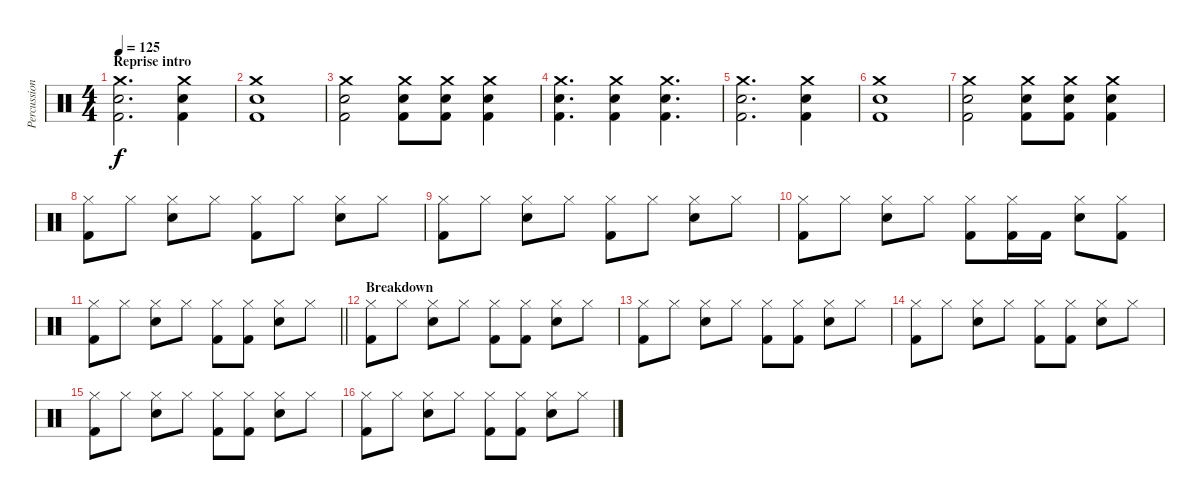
\track ("Percussion" "Percussion") {instrument percussion}
\staff {score}
\articulation defaults
\ts (4 4)
\section ("" "Reprise intro")
\tempo 125
\clef neutral
\ks c
("Crash medium (hit)" "Snare (hit) 2" "Kick (hit) 2").2{d dy f} ("Crash medium (hit)" "Snare (hit) 2" "Kick (hit) 2").4 |
("Crash medium (hit)" "Snare (hit) 2" "Kick (hit) 2").1 |
("Crash medium (hit)" "Snare (hit) 2" "Kick (hit) 2").2 ("Crash medium (hit)" "Snare (hit) 2" "Kick (hit) 2").8 ("Crash medium (hit)" "Snare (hit) 2" "Kick (hit) 2").8 ("Crash medium (hit)" "Snare (hit) 2" "Kick (hit) 2").4 |
("Crash medium (hit)" "Snare (hit) 2" "Kick (hit) 2").4{d} ("Crash medium (hit)" "Snare (hit) 2" "Kick (hit) 2").4 ("Crash medium (hit)" "Snare (hit) 2" "Kick (hit) 2").4{d} |
("Crash medium (hit)" "Snare (hit) 2" "Kick (hit) 2").2{d} ("Crash medium (hit)" "Snare (hit) 2" "Kick (hit) 2").4 |
("Crash medium (hit)" "Snare (hit) 2" "Kick (hit) 2").1 |
("Crash medium (hit)" "Snare (hit) 2" "Kick (hit) 2").2 ("Crash medium (hit)" "Snare (hit) 2" "Kick (hit) 2").8 ("Crash medium (hit)" "Snare (hit) 2" "Kick (hit) 2").8 ("Crash medium (hit)" "Snare (hit) 2" "Kick (hit) 2").4 |
("Hi-Hat (closed)" "Kick (hit) 2").8 "Hi-Hat (closed)".8 ("Hi-Hat (closed)" "Snare (hit) 2").8 "Hi-Hat (closed)".8 ("Hi-Hat (closed)" "Kick (hit) 2").8 "Hi-Hat (closed)".8 ("Hi-Hat (closed)" "Snare (hit) 2").8 "Hi-Hat (closed)".8 |
("Hi-Hat (closed)" "Kick (hit) 2").8 "Hi-Hat (closed)".8 ("Hi-Hat (closed)" "Snare (hit) 2").8 "Hi-Hat (closed)".8 ("Hi-Hat (closed)" "Kick (hit) 2").8 "Hi-Hat (closed)".8 ("Hi-Hat (closed)" "Snare (hit) 2").8 "Hi-Hat (closed)".8 |
("Hi-Hat (closed)" "Kick (hit) 2").8 "Hi-Hat (closed)".8 ("Hi-Hat (closed)" "Snare (hit) 2").8 "Hi-Hat (closed)".8 ("Hi-Hat (closed)" "Kick (hit) 2").8 ("Hi-Hat (closed)" "Kick (hit) 2").16 "Kick (hit) 2".16 ("Hi-Hat (closed)" "Snare (hit) 2").8 ("Hi-Hat (closed)" "Kick (hit) 2").8 |
\barLineRight lightlight
("Hi-Hat (closed)" "Kick (hit) 2").8 "Hi-Hat (closed)".8 ("Hi-Hat (closed)" "Snare (hit) 2").8 "Hi-Hat (closed)".8 ("Hi-Hat (closed)" "Kick (hit) 2").8 ("Hi-Hat (closed)" "Kick (hit) 2").8 ("Hi-Hat (closed)" "Snare (hit) 2").8 "Hi-Hat (closed)".8 |
\section ("" "Breakdown")
("Hi-Hat (closed)" "Kick (hit) 2").8 "Hi-Hat (closed)".8 ("Hi-Hat (closed)" "Snare (hit) 2").8 "Hi-Hat (closed)".8 ("Hi-Hat (closed)" "Kick (hit) 2").8 ("Hi-Hat (closed)" "Kick (hit) 2").8 ("Hi-Hat (closed)" "Snare (hit) 2").8 "Hi-Hat (closed)".8 |
("Hi-Hat (closed)" "Kick (hit) 2").8 "Hi-Hat (closed)".8 ("Hi-Hat (closed)" "Snare (hit) 2").8 "Hi-Hat (closed)".8 ("Hi-Hat (closed)" "Kick (hit) 2").8 ("Hi-Hat (closed)" "Kick (hit) 2").8 ("Hi-Hat (closed)" "Snare (hit) 2").8 "Hi-Hat (closed)".8 |
("Hi-Hat (closed)" "Kick (hit) 2").8 "Hi-Hat (closed)".8 ("Hi-Hat (closed)" "Snare (hit) 2").8 "Hi-Hat (closed)".8 ("Hi-Hat (closed)" "Kick (hit) 2").8 ("Hi-Hat (closed)" "Kick (hit) 2").8 ("Hi-Hat (closed)" "Snare (hit) 2").8 "Hi-Hat (closed)".8 |
("Hi-Hat (closed)" "Kick (hit) 2").8 "Hi-Hat (closed)".8 ("Hi-Hat (closed)" "Snare (hit) 2").8 "Hi-Hat (closed)".8 ("Hi-Hat (closed)" "Kick (hit) 2").8 ("Hi-Hat (closed)" "Kick (hit) 2").8 ("Hi-Hat (closed)" "Snare (hit) 2").8 "Hi-Hat (closed)".8 |
("Hi-Hat (closed)" "Kick (hit) 2").8 "Hi-Hat (closed)".8 ("Hi-Hat (closed)" "Snare (hit) 2").8 "Hi-Hat (closed)".8 ("Hi-Hat (closed)" "Kick (hit) 2").8 ("Hi-Hat (closed)" "Kick (hit) 2").8 ("Hi-Hat (closed)" "Snare (hit) 2").8 "Hi-Hat (closed)".8
